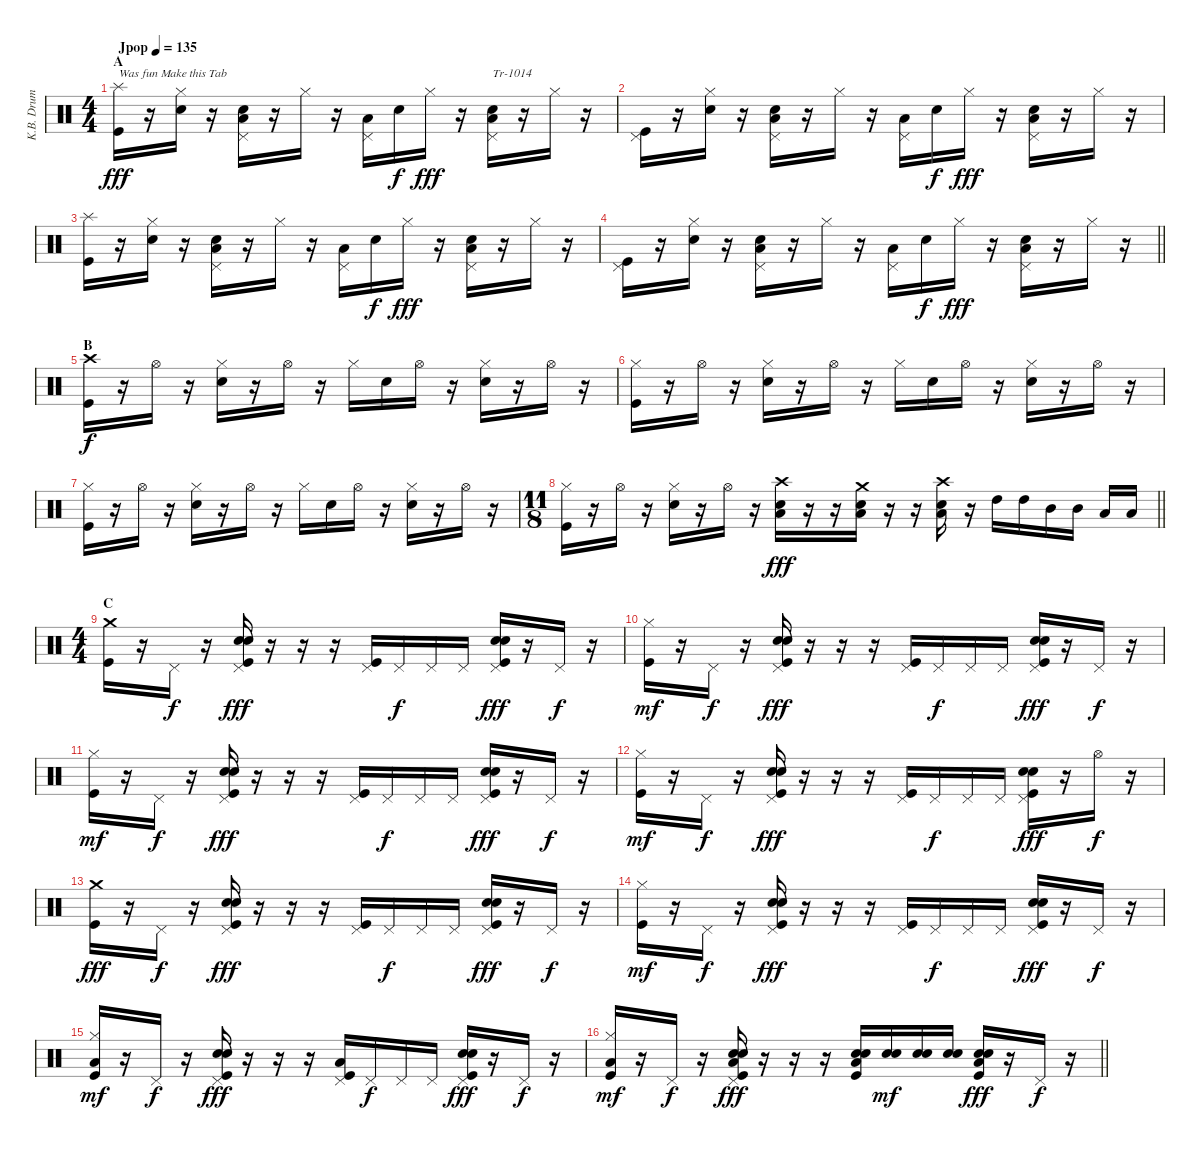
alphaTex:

\track ("K.B. Drum" "K.B. Drum") {instrument percussion}
\staff {score}
\articulation defaults
\ts (4 4)
\section ("" "A")
\tempo (135 "Jpop")
\clef neutral
\ks c
("Splash (hit)" "Kick (hit)").16{txt "Was fun Make this Tab" dy fff} r.16 ("Hi-Hat (closed)" "Snare (hit) 2").16 r.16 ("Pedal Hi-Hat (hit)" "Snare (hit) 2" "Low Tom (hit)").16 r.16 "Hi-Hat (closed)".16 r.16 ("Pedal Hi-Hat (hit)" "Low Tom (hit)").16 "Snare (hit) 2".16{dy f} "Hi-Hat (closed)".16{dy fff} r.16 ("Pedal Hi-Hat (hit)" "Snare (hit) 2" "Low Tom (hit)").16{txt "Tr-1014"} r.16 "Hi-Hat (closed)".16 r.16 |
("Pedal Hi-Hat (hit)" "Kick (hit)").16 r.16 ("Hi-Hat (closed)" "Snare (hit) 2").16 r.16 ("Pedal Hi-Hat (hit)" "Snare (hit) 2" "Low Tom (hit)").16 r.16 "Hi-Hat (closed)".16 r.16 ("Pedal Hi-Hat (hit)" "Low Tom (hit)").16 "Snare (hit) 2".16{dy f} "Hi-Hat (closed)".16{dy fff} r.16 ("Pedal Hi-Hat (hit)" "Snare (hit) 2" "Low Tom (hit)").16 r.16 "Hi-Hat (closed)".16 r.16 |
("Splash (hit)" "Kick (hit)").16 r.16 ("Hi-Hat (closed)" "Snare (hit) 2").16 r.16 ("Pedal Hi-Hat (hit)" "Snare (hit) 2" "Low Tom (hit)").16 r.16 "Hi-Hat (closed)".16 r.16 ("Pedal Hi-Hat (hit)" "Low Tom (hit)").16 "Snare (hit) 2".16{dy f} "Hi-Hat (closed)".16{dy fff} r.16 ("Pedal Hi-Hat (hit)" "Snare (hit) 2" "Low Tom (hit)").16 r.16 "Hi-Hat (closed)".16 r.16 |
\barLineRight lightlight
("Pedal Hi-Hat (hit)" "Kick (hit)").16 r.16 ("Hi-Hat (closed)" "Snare (hit) 2").16 r.16 ("Pedal Hi-Hat (hit)" "Snare (hit) 2" "Low Tom (hit)").16 r.16 "Hi-Hat (closed)".16 r.16 ("Pedal Hi-Hat (hit)" "Low Tom (hit)").16 "Snare (hit) 2".16{dy f} "Hi-Hat (closed)".16{dy fff} r.16 ("Pedal Hi-Hat (hit)" "Snare (hit) 2" "Low Tom (hit)").16 r.16 "Hi-Hat (closed)".16 r.16 |
\section ("" "B")
("Crash high (hit)" "Kick (hit)").16{dy f} r.16 "Hi-Hat (open)".16 r.16 ("Hi-Hat (closed)" "Electric Snare (hit)").16 r.16 "Hi-Hat (open)".16 r.16 "Hi-Hat (closed)".16 "Electric Snare (hit)".16 "Hi-Hat (open)".16 r.16 ("Hi-Hat (closed)" "Electric Snare (hit)").16 r.16 "Hi-Hat (open)".16 r.16 |
("Hi-Hat (closed)" "Kick (hit)").16 r.16 "Hi-Hat (open)".16 r.16 ("Hi-Hat (closed)" "Electric Snare (hit)").16 r.16 "Hi-Hat (open)".16 r.16 "Hi-Hat (closed)".16 "Electric Snare (hit)".16 "Hi-Hat (open)".16 r.16 ("Hi-Hat (closed)" "Electric Snare (hit)").16 r.16 "Hi-Hat (open)".16 r.16 |
("Hi-Hat (closed)" "Kick (hit)").16 r.16 "Hi-Hat (open)".16 r.16 ("Hi-Hat (closed)" "Electric Snare (hit)").16 r.16 "Hi-Hat (open)".16 r.16 "Hi-Hat (closed)".16 "Electric Snare (hit)".16 "Hi-Hat (open)".16 r.16 ("Hi-Hat (closed)" "Electric Snare (hit)").16 r.16 "Hi-Hat (open)".16 r.16 |
\ts (11 8)
\barLineRight lightlight
("Hi-Hat (closed)" "Kick (hit)").16 r.16 "Hi-Hat (open)".16 r.16 ("Hi-Hat (closed)" "Electric Snare (hit)").16 r.16 "Hi-Hat (open)".16 r.16 ("Crash high (hit)" "Electric Snare (hit)" "Low Tom (hit)").16{dy fff} r.16 r.16 ("Crash medium (hit)" "Electric Snare (hit)" "Low Tom (hit)").16 r.16 r.16 ("Crash high (hit)" "Electric Snare (hit)" "Low Tom (hit)").16 r.16 "High Tom (hit)".16 "High Tom (hit)".16 "Mid Tom (hit)".16 "Mid Tom (hit)".16 "Low Tom (hit)".16 "Low Tom (hit)".16 |
\ts (4 4)
\section ("" "C")
("Crash medium (hit)" "Kick (hit)").16 r.16 "Pedal Hi-Hat (hit)".16{dy f} r.16 ("Pedal Hi-Hat (hit)" "Snare (hit) 2" "Electric Snare (hit)" "Kick (hit)").16{dy fff} r.16 r.16 r.16 ("Pedal Hi-Hat (hit)" "Kick (hit)").16 "Pedal Hi-Hat (hit)".16{dy f} "Pedal Hi-Hat (hit)".16 "Pedal Hi-Hat (hit)".16 ("Pedal Hi-Hat (hit)" "Snare (hit) 2" "Electric Snare (hit)" "Kick (hit)").16{dy fff} r.16 "Pedal Hi-Hat (hit)".16{dy f} r.16 |
("Hi-Hat (closed)" "Kick (hit)").16{dy mf} r.16 "Pedal Hi-Hat (hit)".16{dy f} r.16 ("Pedal Hi-Hat (hit)" "Snare (hit) 2" "Electric Snare (hit)" "Kick (hit)").16{dy fff} r.16 r.16 r.16 ("Pedal Hi-Hat (hit)" "Kick (hit)").16 "Pedal Hi-Hat (hit)".16{dy f} "Pedal Hi-Hat (hit)".16 "Pedal Hi-Hat (hit)".16 ("Pedal Hi-Hat (hit)" "Snare (hit) 2" "Electric Snare (hit)" "Kick (hit)").16{dy fff} r.16 "Pedal Hi-Hat (hit)".16{dy f} r.16 |
("Hi-Hat (closed)" "Kick (hit)").16{dy mf} r.16 "Pedal Hi-Hat (hit)".16{dy f} r.16 ("Pedal Hi-Hat (hit)" "Snare (hit) 2" "Electric Snare (hit)" "Kick (hit)").16{dy fff} r.16 r.16 r.16 ("Pedal Hi-Hat (hit)" "Kick (hit)").16 "Pedal Hi-Hat (hit)".16{dy f} "Pedal Hi-Hat (hit)".16 "Pedal Hi-Hat (hit)".16 ("Pedal Hi-Hat (hit)" "Snare (hit) 2" "Electric Snare (hit)" "Kick (hit)").16{dy fff} r.16 "Pedal Hi-Hat (hit)".16{dy f} r.16 |
("Hi-Hat (closed)" "Kick (hit)").16{dy mf} r.16 "Pedal Hi-Hat (hit)".16{dy f} r.16 ("Pedal Hi-Hat (hit)" "Snare (hit) 2" "Electric Snare (hit)" "Kick (hit)").16{dy fff} r.16 r.16 r.16 ("Pedal Hi-Hat (hit)" "Kick (hit)").16 "Pedal Hi-Hat (hit)".16{dy f} "Pedal Hi-Hat (hit)".16 "Pedal Hi-Hat (hit)".16 ("Pedal Hi-Hat (hit)" "Snare (hit) 2" "Electric Snare (hit)" "Kick (hit)").16{dy fff} r.16 "Hi-Hat (open)".16{dy f} r.16 |
("Crash medium (hit)" "Kick (hit)").16{dy fff} r.16 "Pedal Hi-Hat (hit)".16{dy f} r.16 ("Pedal Hi-Hat (hit)" "Snare (hit) 2" "Electric Snare (hit)" "Kick (hit)").16{dy fff} r.16 r.16 r.16 ("Pedal Hi-Hat (hit)" "Kick (hit)").16 "Pedal Hi-Hat (hit)".16{dy f} "Pedal Hi-Hat (hit)".16 "Pedal Hi-Hat (hit)".16 ("Pedal Hi-Hat (hit)" "Snare (hit) 2" "Electric Snare (hit)" "Kick (hit)").16{dy fff} r.16 "Pedal Hi-Hat (hit)".16{dy f} r.16 |
("Hi-Hat (closed)" "Kick (hit)").16{dy mf} r.16 "Pedal Hi-Hat (hit)".16{dy f} r.16 ("Pedal Hi-Hat (hit)" "Snare (hit) 2" "Electric Snare (hit)" "Kick (hit)").16{dy fff} r.16 r.16 r.16 ("Pedal Hi-Hat (hit)" "Kick (hit)").16 "Pedal Hi-Hat (hit)".16{dy f} "Pedal Hi-Hat (hit)".16 "Pedal Hi-Hat (hit)".16 ("Pedal Hi-Hat (hit)" "Snare (hit) 2" "Electric Snare (hit)" "Kick (hit)").16{dy fff} r.16 "Pedal Hi-Hat (hit)".16{dy f} r.16 |
("Hi-Hat (closed)" "Low Tom (hit)" "Kick (hit)").16{dy mf} r.16 "Pedal Hi-Hat (hit)".16{dy f} r.16 ("Pedal Hi-Hat (hit)" "Snare (hit) 2" "Electric Snare (hit)" "Kick (hit)").16{dy fff} r.16 r.16 r.16 ("Pedal Hi-Hat (hit)" "Low Tom (hit)" "Kick (hit)").16 "Pedal Hi-Hat (hit)".16{dy f} "Pedal Hi-Hat (hit)".16 "Pedal Hi-Hat (hit)".16 ("Pedal Hi-Hat (hit)" "Snare (hit) 2" "Electric Snare (hit)" "Kick (hit)").16{dy fff} r.16 "Pedal Hi-Hat (hit)".16{dy f} r.16 |
\barLineRight lightlight
("Hi-Hat (closed)" "Low Tom (hit)" "Kick (hit)").16{dy mf} r.16 "Pedal Hi-Hat (hit)".16{dy f} r.16 ("Pedal Hi-Hat (hit)" "Snare (hit) 2" "Electric Snare (hit)" "Low Tom (hit)" "Kick (hit)").16{dy fff} r.16 r.16 r.16 ("Snare (hit) 2" "Electric Snare (hit)" "Low Tom (hit)" "Kick (hit)").16 ("Snare (hit) 2" "Electric Snare (hit)").16{dy mf} ("Snare (hit) 2" "Electric Snare (hit)").16 ("Snare (hit) 2" "Electric Snare (hit)").16 ("Snare (hit) 2" "Electric Snare (hit)" "Low Tom (hit)" "Kick (hit)").16{dy fff} r.16 "Pedal Hi-Hat (hit)".16{dy f} r.16
